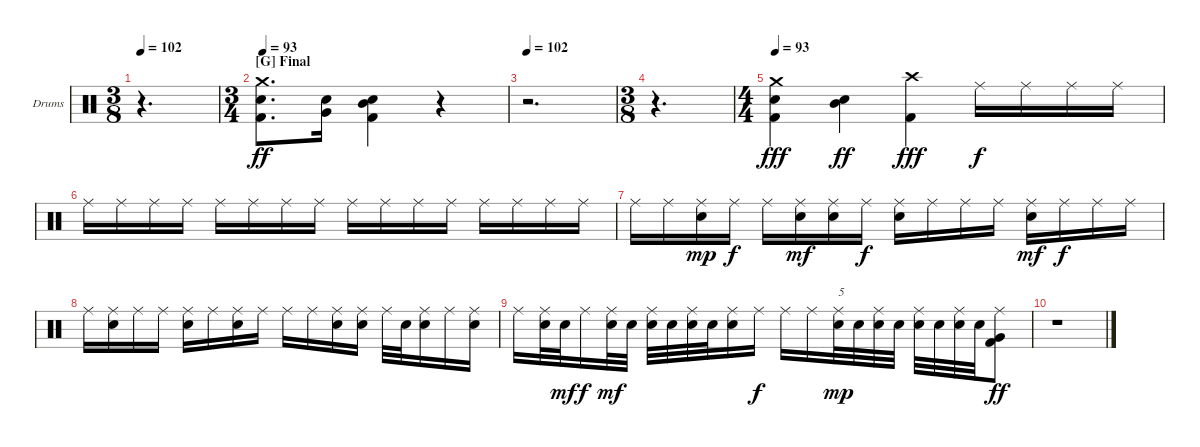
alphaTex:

\defaultSystemsLayout 4
\bracketExtendMode nobrackets
\firstSystemTrackNameOrientation horizontal
\otherSystemsTrackNameOrientation horizontal
\track ("Drums" "Drums") {instrument percussion}
\staff
\articulation defaults
\ts (3 8)
\beaming (8 3)
\tempo 102
\clef neutral
\ks c
r.4{d dy ff} |
\ts (3 4)
\beaming (8 2 2 2)
\section ("G" "Final")
\tempo (93 0.00625)
("Crash medium (hit)" "Snare (hit) 2" "Kick (hit) 2").8{d} ("Very Low Tom (hit)" "Snare (hit) 2").16 ("Kick (hit) 2" "Mid Tom (hit)" "Snare (hit) 2").4 r.4 |
\tempo 102
r.2{d} |
\ts (3 8)
\beaming (8 3)
r.4{d} |
\ts (4 4)
\beaming (8 2 2 2 2)
\tempo 93
("Crash medium (hit)" "Snare (hit) 2" "Kick (hit) 2").4{dy fff} ("Mid Tom (hit)" "Snare (hit) 2").4{dy ff} ("Crash high (hit)" "Kick (hit) 2").4{dy fff} "Ride (middle)".16{dy f} "Ride (middle)".16 "Ride (middle)".16 "Ride (middle)".16 |
"Ride (middle)".16 "Ride (middle)".16 "Ride (middle)".16 "Ride (middle)".16 "Ride (middle)".16 "Ride (middle)".16 "Ride (middle)".16 "Ride (middle)".16 "Ride (middle)".16 "Ride (middle)".16 "Ride (middle)".16 "Ride (middle)".16 "Ride (middle)".16 "Ride (middle)".16 "Ride (middle)".16 "Ride (middle)".16 |
\scale
0.915986 "Ride (middle)".16 "Ride (middle)".16 ("Ride (middle)" "Snare (hit) 2").16{dy mp} "Ride (middle)".16{dy f} "Ride (middle)".16 ("Ride (middle)" "Snare (hit) 2").16{dy mf} ("Ride (middle)" "Snare (hit) 2").16 "Ride (middle)".16{dy f} ("Ride (middle)" "Snare (hit) 2").16 "Ride (middle)".16 "Ride (middle)".16 "Ride (middle)".16 ("Ride (middle)" "Snare (hit) 2").16{dy mf} "Ride (middle)".16{dy f} "Ride (middle)".16 "Ride (middle)".16 |
\scale
0.606545 "Ride (middle)".16 ("Ride (middle)" "Snare (hit) 2").16 "Ride (middle)".16 "Ride (middle)".16 ("Ride (middle)" "Snare (hit) 2").16 "Ride (middle)".16 ("Ride (middle)" "Snare (hit) 2").16 "Ride (middle)".16 "Ride (middle)".16 "Ride (middle)".16 ("Ride (middle)" "Snare (hit) 2").16 ("Ride (middle)" "Snare (hit) 2").16 "Ride (middle)".32 "Snare (hit) 2".32 ("Ride (middle)" "Snare (hit) 2").16 "Ride (middle)".16 ("Ride (middle)" "Snare (hit) 2").16 |
\scale
2.11362 "Ride (middle)".16 ("Snare (hit) 2" "Ride (middle)").32 "Snare (hit) 2".32{dy mf} "Ride (middle)".16{dy f} ("Ride (middle)" "Snare (hit) 2").32{dy mf} "Snare (hit) 2".32 ("Snare (hit) 2" "Ride (middle)").32 "Snare (hit) 2".32 ("Snare (hit) 2" "Ride (middle)").32 "Snare (hit) 2".32 ("Ride (middle)" "Snare (hit) 2").16 "Ride (middle)".16{dy f} "Ride (middle)".16 "Ride (middle)".16 ("Snare (hit) 2" "Ride (middle)").32{txt "5" dy mp} "Snare (hit) 2".32 ("Snare (hit) 2" "Ride (middle)").32 "Snare (hit) 2".32 ("Snare (hit) 2" "Ride (middle)").32 "Snare (hit) 2".32 ("Snare (hit) 2" "Ride (middle)").32 "Snare (hit) 2".32 ("Ride (middle)" "Kick (hit) 2" "Very Low Tom (hit)").8{dy ff} |
\scale
0.363847 r.1
